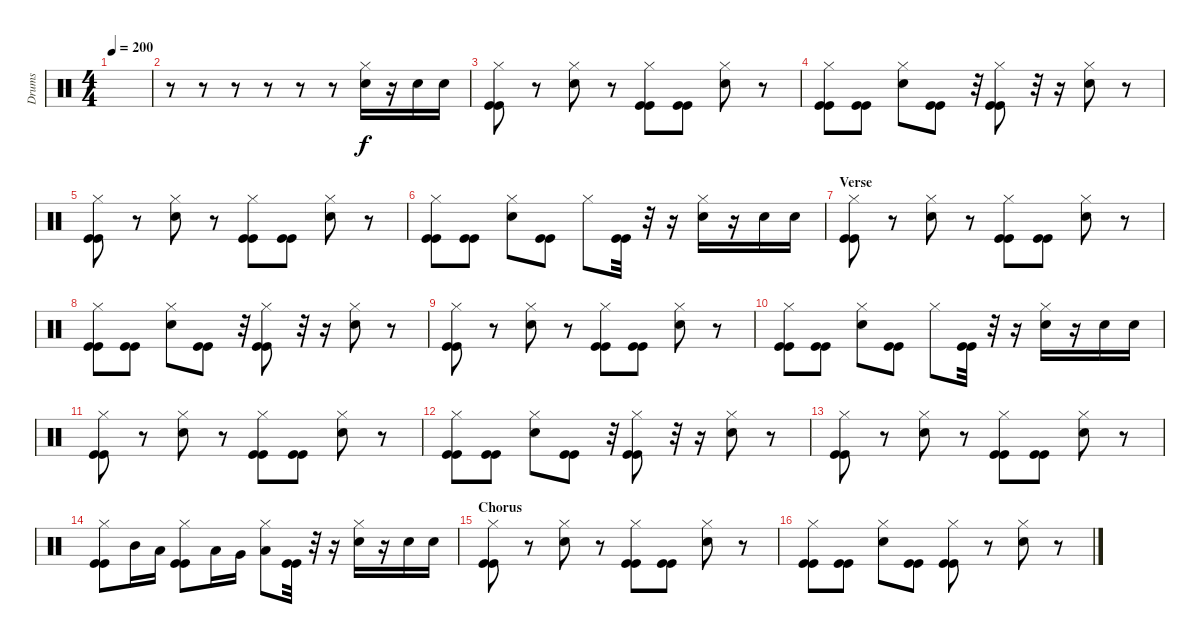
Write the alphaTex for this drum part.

\track ("Drums" "Drums") {instrument percussion}
\staff {score}
\articulation defaults
\ts (4 4)
\tempo 200
\clef neutral
\ks c
|
r.8 r.8 r.8 r.8 r.8 r.8 ("Hi-Hat (closed)" "Electric Snare (hit)").16{dy f} r.16 "Electric Snare (hit)".16 "Electric Snare (hit)".16 |
("Hi-Hat (closed)" "Kick (hit)" "Kick (hit)").8 r.8 ("Hi-Hat (closed)" "Electric Snare (hit)").8 r.8 ("Hi-Hat (closed)" "Kick (hit)" "Kick (hit)").8 ("Kick (hit)" "Kick (hit)").8 ("Hi-Hat (closed)" "Electric Snare (hit)").8 r.8 |
("Hi-Hat (closed)" "Kick (hit)" "Kick (hit)").8 ("Kick (hit)" "Kick (hit)").8 ("Hi-Hat (closed)" "Electric Snare (hit)").8 ("Kick (hit)" "Kick (hit)").8 r.32 ("Hi-Hat (closed)" "Kick (hit)" "Kick (hit)").8 r.32 r.16 ("Hi-Hat (closed)" "Electric Snare (hit)").8 r.8 |
("Hi-Hat (closed)" "Kick (hit)" "Kick (hit)").8 r.8 ("Hi-Hat (closed)" "Electric Snare (hit)").8 r.8 ("Hi-Hat (closed)" "Kick (hit)" "Kick (hit)").8 ("Kick (hit)" "Kick (hit)").8 ("Hi-Hat (closed)" "Electric Snare (hit)").8 r.8 |
("Hi-Hat (closed)" "Kick (hit)" "Kick (hit)").8 ("Kick (hit)" "Kick (hit)").8 ("Hi-Hat (closed)" "Electric Snare (hit)").8 ("Kick (hit)" "Kick (hit)").8 "Hi-Hat (closed)".8 ("Kick (hit)" "Kick (hit)").32 r.32 r.16 ("Hi-Hat (closed)" "Electric Snare (hit)").16 r.16 "Electric Snare (hit)".16 "Electric Snare (hit)".16 |
\section ("" "Verse")
("Hi-Hat (closed)" "Kick (hit)" "Kick (hit)").8 r.8 ("Hi-Hat (closed)" "Electric Snare (hit)").8 r.8 ("Hi-Hat (closed)" "Kick (hit)" "Kick (hit)").8 ("Kick (hit)" "Kick (hit)").8 ("Hi-Hat (closed)" "Electric Snare (hit)").8 r.8 |
("Hi-Hat (closed)" "Kick (hit)" "Kick (hit)").8 ("Kick (hit)" "Kick (hit)").8 ("Hi-Hat (closed)" "Electric Snare (hit)").8 ("Kick (hit)" "Kick (hit)").8 r.32 ("Hi-Hat (closed)" "Kick (hit)" "Kick (hit)").8 r.32 r.16 ("Hi-Hat (closed)" "Electric Snare (hit)").8 r.8 |
("Hi-Hat (closed)" "Kick (hit)" "Kick (hit)").8 r.8 ("Hi-Hat (closed)" "Electric Snare (hit)").8 r.8 ("Hi-Hat (closed)" "Kick (hit)" "Kick (hit)").8 ("Kick (hit)" "Kick (hit)").8 ("Hi-Hat (closed)" "Electric Snare (hit)").8 r.8 |
("Hi-Hat (closed)" "Kick (hit)" "Kick (hit)").8 ("Kick (hit)" "Kick (hit)").8 ("Hi-Hat (closed)" "Electric Snare (hit)").8 ("Kick (hit)" "Kick (hit)").8 "Hi-Hat (closed)".8 ("Kick (hit)" "Kick (hit)").32 r.32 r.16 ("Hi-Hat (closed)" "Electric Snare (hit)").16 r.16 "Electric Snare (hit)".16 "Electric Snare (hit)".16 |
("Hi-Hat (closed)" "Kick (hit)" "Kick (hit)").8 r.8 ("Hi-Hat (closed)" "Electric Snare (hit)").8 r.8 ("Hi-Hat (closed)" "Kick (hit)" "Kick (hit)").8 ("Kick (hit)" "Kick (hit)").8 ("Hi-Hat (closed)" "Electric Snare (hit)").8 r.8 |
("Hi-Hat (closed)" "Kick (hit)" "Kick (hit)").8 ("Kick (hit)" "Kick (hit)").8 ("Hi-Hat (closed)" "Electric Snare (hit)").8 ("Kick (hit)" "Kick (hit)").8 r.32 ("Hi-Hat (closed)" "Kick (hit)" "Kick (hit)").8 r.32 r.16 ("Hi-Hat (closed)" "Electric Snare (hit)").8 r.8 |
("Hi-Hat (closed)" "Kick (hit)" "Kick (hit)").8 r.8 ("Hi-Hat (closed)" "Electric Snare (hit)").8 r.8 ("Hi-Hat (closed)" "Kick (hit)" "Kick (hit)").8 ("Kick (hit)" "Kick (hit)").8 ("Hi-Hat (closed)" "Electric Snare (hit)").8 r.8 |
("Hi-Hat (closed)" "Kick (hit)" "Kick (hit)").8 "Mid Tom (hit)".16 "Low Tom (hit)".16 ("Hi-Hat (closed)" "Kick (hit)" "Kick (hit)").8 "Low Tom (hit)".16 "Very Low Tom (hit)".16 ("Hi-Hat (closed)" "Low Tom (hit)").8 ("Kick (hit)" "Kick (hit)").32 r.32 r.16 ("Hi-Hat (closed)" "Electric Snare (hit)").16 r.16 "Electric Snare (hit)".16 "Electric Snare (hit)".16 |
\section ("" "Chorus")
("Hi-Hat (closed)" "Kick (hit)" "Kick (hit)").8 r.8 ("Hi-Hat (closed)" "Electric Snare (hit)").8 r.8 ("Hi-Hat (closed)" "Kick (hit)" "Kick (hit)").8 ("Kick (hit)" "Kick (hit)").8 ("Hi-Hat (closed)" "Electric Snare (hit)").8 r.8 |
("Hi-Hat (closed)" "Kick (hit)" "Kick (hit)").8 ("Kick (hit)" "Kick (hit)").8 ("Hi-Hat (closed)" "Electric Snare (hit)").8 ("Kick (hit)" "Kick (hit)").8 ("Hi-Hat (closed)" "Kick (hit)" "Kick (hit)").8 r.8 ("Hi-Hat (closed)" "Electric Snare (hit)").8 r.8
